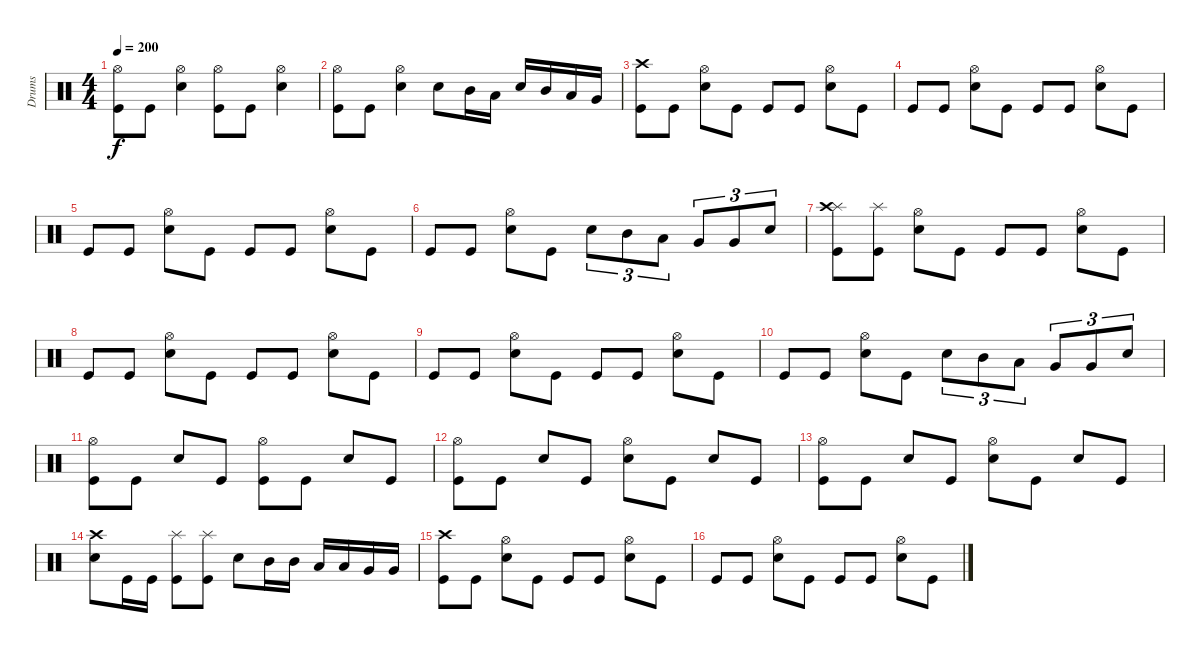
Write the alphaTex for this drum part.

\track ("Drums" "Drums") {instrument percussion}
\staff {score}
\articulation defaults
\ts (4 4)
\tempo 200
\clef neutral
\ks c
("Kick (hit)" "Hi-Hat (open)").8{dy f} "Kick (hit)".8 ("Electric Snare (hit)" "Hi-Hat (open)").4 ("Kick (hit)" "Hi-Hat (open)").8 "Kick (hit)".8 ("Electric Snare (hit)" "Hi-Hat (open)").4 |
("Kick (hit)" "Hi-Hat (open)").8 "Kick (hit)".8 ("Electric Snare (hit)" "Hi-Hat (open)").4 "Electric Snare (hit)".8 "Mid Tom (hit)".16 "Low Tom (hit)".16 "Electric Snare (hit)".16 "Mid Tom (hit)".16 "Low Tom (hit)".16 "Very Low Tom (hit)".16 |
("Crash high (hit)" "Kick (hit)").8 "Kick (hit)".8 ("Hi-Hat (open)" "Electric Snare (hit)").8 "Kick (hit)".8 "Kick (hit)".8 "Kick (hit)".8 ("Hi-Hat (open)" "Electric Snare (hit)").8 "Kick (hit)".8 |
"Kick (hit)".8 "Kick (hit)".8 ("Hi-Hat (open)" "Electric Snare (hit)").8 "Kick (hit)".8 "Kick (hit)".8 "Kick (hit)".8 ("Hi-Hat (open)" "Electric Snare (hit)").8 "Kick (hit)".8 |
"Kick (hit)".8 "Kick (hit)".8 ("Hi-Hat (open)" "Electric Snare (hit)").8 "Kick (hit)".8 "Kick (hit)".8 "Kick (hit)".8 ("Hi-Hat (open)" "Electric Snare (hit)").8 "Kick (hit)".8 |
"Kick (hit)".8 "Kick (hit)".8 ("Hi-Hat (open)" "Electric Snare (hit)").8 "Kick (hit)".8 "Electric Snare (hit)".8{tu (3 2)} "Mid Tom (hit)".8{tu (3 2)} "Low Tom (hit)".8{tu (3 2)} "Very Low Tom (hit)".8{tu (3 2)} "Very Low Tom (hit)".8{tu (3 2)} "Electric Snare (hit)".8{tu (3 2)} |
("Splash (hit)" "Kick (hit)" "Crash high (hit)").8 ("Splash (hit)" "Kick (hit)").8 ("Hi-Hat (open)" "Electric Snare (hit)").8 "Kick (hit)".8 "Kick (hit)".8 "Kick (hit)".8 ("Hi-Hat (open)" "Electric Snare (hit)").8 "Kick (hit)".8 |
"Kick (hit)".8 "Kick (hit)".8 ("Hi-Hat (open)" "Electric Snare (hit)").8 "Kick (hit)".8 "Kick (hit)".8 "Kick (hit)".8 ("Hi-Hat (open)" "Electric Snare (hit)").8 "Kick (hit)".8 |
"Kick (hit)".8 "Kick (hit)".8 ("Hi-Hat (open)" "Electric Snare (hit)").8 "Kick (hit)".8 "Kick (hit)".8 "Kick (hit)".8 ("Hi-Hat (open)" "Electric Snare (hit)").8 "Kick (hit)".8 |
"Kick (hit)".8 "Kick (hit)".8 ("Hi-Hat (open)" "Electric Snare (hit)").8 "Kick (hit)".8 "Electric Snare (hit)".8{tu (3 2)} "Mid Tom (hit)".8{tu (3 2)} "Low Tom (hit)".8{tu (3 2)} "Very Low Tom (hit)".8{tu (3 2)} "Very Low Tom (hit)".8{tu (3 2)} "Electric Snare (hit)".8{tu (3 2)} |
("Hi-Hat (open)" "Kick (hit)").8 "Kick (hit)".8 "Electric Snare (hit)".8 "Kick (hit)".8 ("Hi-Hat (open)" "Kick (hit)").8 "Kick (hit)".8 "Electric Snare (hit)".8 "Kick (hit)".8 |
("Hi-Hat (open)" "Kick (hit)").8 "Kick (hit)".8 "Electric Snare (hit)".8 "Kick (hit)".8 ("Hi-Hat (open)" "Electric Snare (hit)").8 "Kick (hit)".8 "Electric Snare (hit)".8 "Kick (hit)".8 |
("Hi-Hat (open)" "Kick (hit)").8 "Kick (hit)".8 "Electric Snare (hit)".8 "Kick (hit)".8 ("Electric Snare (hit)" "Hi-Hat (open)").8 "Kick (hit)".8 "Electric Snare (hit)".8 "Kick (hit)".8 |
("Crash high (hit)" "Electric Snare (hit)").8 "Kick (hit)".16 "Kick (hit)".16 ("Splash (hit)" "Kick (hit)").8 ("Splash (hit)" "Kick (hit)").8 "Electric Snare (hit)".8 "Mid Tom (hit)".16 "Mid Tom (hit)".16 "Low Tom (hit)".16 "Low Tom (hit)".16 "Very Low Tom (hit)".16 "Very Low Tom (hit)".16 |
("Kick (hit)" "Crash high (hit)").8 "Kick (hit)".8 ("Hi-Hat (open)" "Electric Snare (hit)").8 "Kick (hit)".8 "Kick (hit)".8 "Kick (hit)".8 ("Hi-Hat (open)" "Electric Snare (hit)").8 "Kick (hit)".8 |
"Kick (hit)".8 "Kick (hit)".8 ("Hi-Hat (open)" "Electric Snare (hit)").8 "Kick (hit)".8 "Kick (hit)".8 "Kick (hit)".8 ("Hi-Hat (open)" "Electric Snare (hit)").8 "Kick (hit)".8
